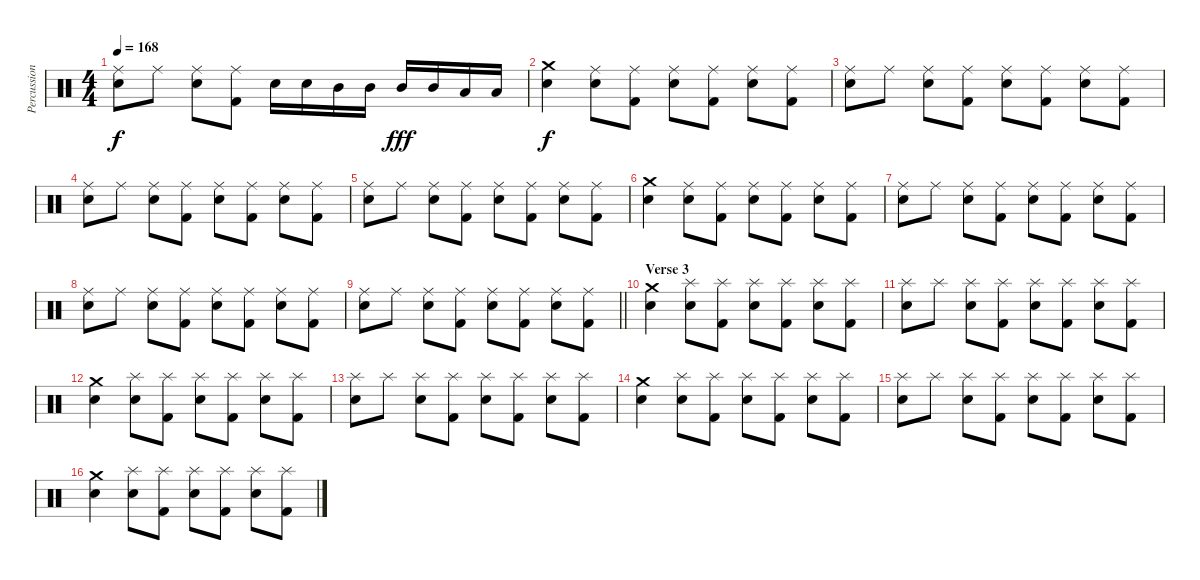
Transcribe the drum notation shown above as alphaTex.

\track ("Percussion" "Percussion") {instrument percussion}
\staff {score}
\articulation defaults
\ts (4 4)
\tempo 168
\clef neutral
\ks c
("Ride (middle)" "Snare (hit) 2").8{dy f} "Ride (middle)".8 ("Ride (middle)" "Snare (hit) 2").8 ("Ride (middle)" "Kick (hit) 2").8 "Snare (hit) 2".16 "Snare (hit) 2".16 "Mid Tom (hit)".16 "Mid Tom (hit)".16 "Mid Tom (hit)".16{dy fff} "Mid Tom (hit)".16 "Low Tom (hit)".16 "Low Tom (hit)".16 |
("Crash medium (hit)" "Snare (hit) 2").4{dy f} ("Ride (middle)" "Snare (hit) 2").8 ("Ride (middle)" "Kick (hit) 2").8 ("Ride (middle)" "Snare (hit) 2").8 ("Ride (middle)" "Kick (hit) 2").8 ("Ride (middle)" "Snare (hit) 2").8 ("Ride (middle)" "Kick (hit) 2").8 |
("Ride (middle)" "Snare (hit) 2").8 "Ride (middle)".8 ("Ride (middle)" "Snare (hit) 2").8 ("Ride (middle)" "Kick (hit) 2").8 ("Ride (middle)" "Snare (hit) 2").8 ("Ride (middle)" "Kick (hit) 2").8 ("Ride (middle)" "Snare (hit) 2").8 ("Ride (middle)" "Kick (hit) 2").8 |
("Ride (middle)" "Snare (hit) 2").8 "Ride (middle)".8 ("Ride (middle)" "Snare (hit) 2").8 ("Ride (middle)" "Kick (hit) 2").8 ("Ride (middle)" "Snare (hit) 2").8 ("Ride (middle)" "Kick (hit) 2").8 ("Ride (middle)" "Snare (hit) 2").8 ("Ride (middle)" "Kick (hit) 2").8 |
("Ride (middle)" "Snare (hit) 2").8 "Ride (middle)".8 ("Ride (middle)" "Snare (hit) 2").8 ("Ride (middle)" "Kick (hit) 2").8 ("Ride (middle)" "Snare (hit) 2").8 ("Ride (middle)" "Kick (hit) 2").8 ("Ride (middle)" "Snare (hit) 2").8 ("Ride (middle)" "Kick (hit) 2").8 |
("Crash medium (hit)" "Snare (hit) 2").4 ("Ride (middle)" "Snare (hit) 2").8 ("Ride (middle)" "Kick (hit) 2").8 ("Ride (middle)" "Snare (hit) 2").8 ("Ride (middle)" "Kick (hit) 2").8 ("Ride (middle)" "Snare (hit) 2").8 ("Ride (middle)" "Kick (hit) 2").8 |
("Ride (middle)" "Snare (hit) 2").8 "Ride (middle)".8 ("Ride (middle)" "Snare (hit) 2").8 ("Ride (middle)" "Kick (hit) 2").8 ("Ride (middle)" "Snare (hit) 2").8 ("Ride (middle)" "Kick (hit) 2").8 ("Ride (middle)" "Snare (hit) 2").8 ("Ride (middle)" "Kick (hit) 2").8 |
("Ride (middle)" "Snare (hit) 2").8 "Ride (middle)".8 ("Ride (middle)" "Snare (hit) 2").8 ("Ride (middle)" "Kick (hit) 2").8 ("Ride (middle)" "Snare (hit) 2").8 ("Ride (middle)" "Kick (hit) 2").8 ("Ride (middle)" "Snare (hit) 2").8 ("Ride (middle)" "Kick (hit) 2").8 |
\barLineRight lightlight
("Ride (middle)" "Snare (hit) 2").8 "Ride (middle)".8 ("Ride (middle)" "Snare (hit) 2").8 ("Ride (middle)" "Kick (hit) 2").8 ("Ride (middle)" "Snare (hit) 2").8 ("Ride (middle)" "Kick (hit) 2").8 ("Ride (middle)" "Snare (hit) 2").8 ("Ride (middle)" "Kick (hit) 2").8 |
\section ("" "Verse 3")
("Crash medium (hit)" "Snare (hit) 2").4 ("Splash (hit)" "Snare (hit) 2").8 ("Splash (hit)" "Kick (hit) 2").8 ("Splash (hit)" "Snare (hit) 2").8 ("Splash (hit)" "Kick (hit) 2").8 ("Splash (hit)" "Snare (hit) 2").8 ("Splash (hit)" "Kick (hit) 2").8 |
("Splash (hit)" "Snare (hit) 2").8 "Splash (hit)".8 ("Splash (hit)" "Snare (hit) 2").8 ("Splash (hit)" "Kick (hit) 2").8 ("Splash (hit)" "Snare (hit) 2").8 ("Splash (hit)" "Kick (hit) 2").8 ("Splash (hit)" "Snare (hit) 2").8 ("Splash (hit)" "Kick (hit) 2").8 |
("Crash medium (hit)" "Snare (hit) 2").4 ("Splash (hit)" "Snare (hit) 2").8 ("Splash (hit)" "Kick (hit) 2").8 ("Splash (hit)" "Snare (hit) 2").8 ("Splash (hit)" "Kick (hit) 2").8 ("Splash (hit)" "Snare (hit) 2").8 ("Splash (hit)" "Kick (hit) 2").8 |
("Splash (hit)" "Snare (hit) 2").8 "Splash (hit)".8 ("Splash (hit)" "Snare (hit) 2").8 ("Splash (hit)" "Kick (hit) 2").8 ("Splash (hit)" "Snare (hit) 2").8 ("Splash (hit)" "Kick (hit) 2").8 ("Splash (hit)" "Snare (hit) 2").8 ("Splash (hit)" "Kick (hit) 2").8 |
("Crash medium (hit)" "Snare (hit) 2").4 ("Splash (hit)" "Snare (hit) 2").8 ("Splash (hit)" "Kick (hit) 2").8 ("Splash (hit)" "Snare (hit) 2").8 ("Splash (hit)" "Kick (hit) 2").8 ("Splash (hit)" "Snare (hit) 2").8 ("Splash (hit)" "Kick (hit) 2").8 |
("Splash (hit)" "Snare (hit) 2").8 "Splash (hit)".8 ("Splash (hit)" "Snare (hit) 2").8 ("Splash (hit)" "Kick (hit) 2").8 ("Splash (hit)" "Snare (hit) 2").8 ("Splash (hit)" "Kick (hit) 2").8 ("Splash (hit)" "Snare (hit) 2").8 ("Splash (hit)" "Kick (hit) 2").8 |
("Crash medium (hit)" "Snare (hit) 2").4 ("Splash (hit)" "Snare (hit) 2").8 ("Splash (hit)" "Kick (hit) 2").8 ("Splash (hit)" "Snare (hit) 2").8 ("Splash (hit)" "Kick (hit) 2").8 ("Splash (hit)" "Snare (hit) 2").8 ("Splash (hit)" "Kick (hit) 2").8
